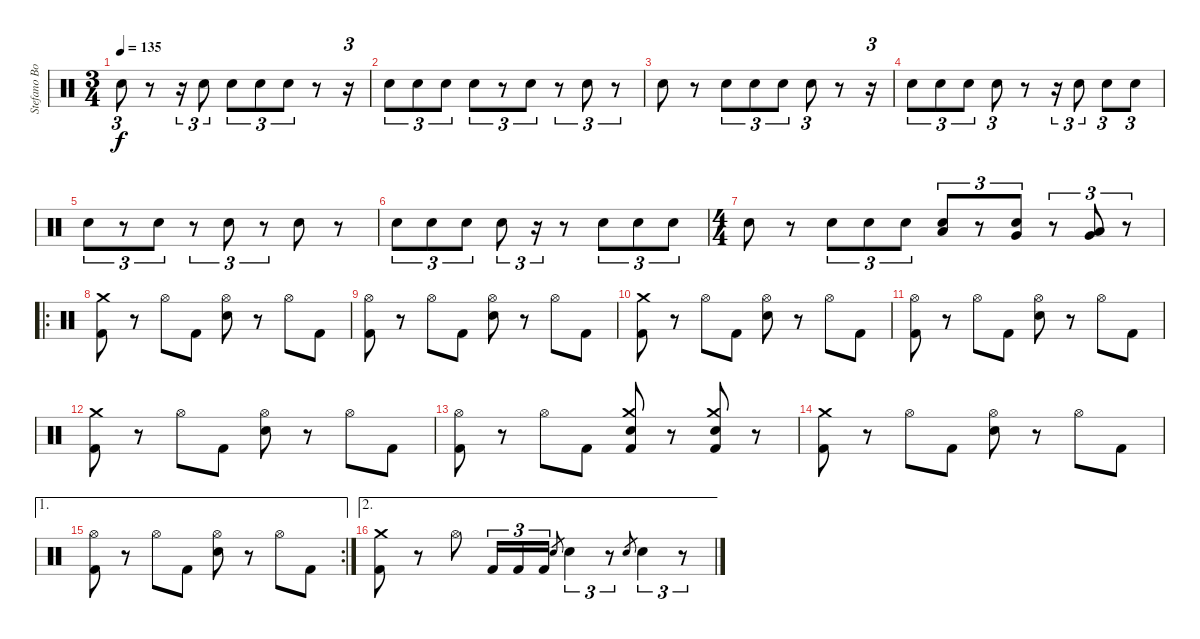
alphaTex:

\track ("Stefano Bonini" "Stefano Bo") {instrument percussion}
\staff {score}
\articulation defaults
\ts (3 4)
\tempo 135
\clef neutral
\ks c "Electric Snare (hit)".8{tu (3 2) dy f}
r.8 r.16{tu (3 2)} "Electric Snare (hit)".8{tu (3 2)} "Electric Snare (hit)".8{tu (3 2)} "Electric Snare (hit)".8{tu (3 2)} "Electric Snare (hit)".8{tu (3 2)} r.8 r.16{tu (3 2)} |
"Electric Snare (hit)".8{tu (3 2)} "Electric Snare (hit)".8{tu (3 2)} "Electric Snare (hit)".8{tu (3 2)} "Electric Snare (hit)".8{tu (3 2)} r.8{tu (3 2)} "Electric Snare (hit)".8{tu (3 2)} r.8{tu (3 2)} "Electric Snare (hit)".8{tu (3 2)} r.8{tu (3 2)} |
"Electric Snare (hit)".8 r.8 "Electric Snare (hit)".8{tu (3 2)} "Electric Snare (hit)".8{tu (3 2)} "Electric Snare (hit)".8{tu (3 2)} "Electric Snare (hit)".8{tu (3 2)} r.8 r.16{tu (3 2)} |
"Electric Snare (hit)".8{tu (3 2)} "Electric Snare (hit)".8{tu (3 2)} "Electric Snare (hit)".8{tu (3 2)} "Electric Snare (hit)".8{tu (3 2)} r.8 r.16{tu (3 2)} "Electric Snare (hit)".8{tu (3 2)} "Electric Snare (hit)".8{tu (3 2)} "Electric Snare (hit)".8{tu (3 2)} |
"Electric Snare (hit)".8{tu (3 2)} r.8{tu (3 2)} "Electric Snare (hit)".8{tu (3 2)} r.8{tu (3 2)} "Electric Snare (hit)".8{tu (3 2)} r.8{tu (3 2)} "Electric Snare (hit)".8 r.8 |
"Electric Snare (hit)".8{tu (3 2)} "Electric Snare (hit)".8{tu (3 2)} "Electric Snare (hit)".8{tu (3 2)} "Electric Snare (hit)".8{tu (3 2)} r.16{tu (3 2)} r.8 "Electric Snare (hit)".8{tu (3 2)} "Electric Snare (hit)".8{tu (3 2)} "Electric Snare (hit)".8{tu (3 2)} |
\ts (4 4)
"Electric Snare (hit)".8 r.8 "Electric Snare (hit)".8{tu (3 2)} "Electric Snare (hit)".8{tu (3 2)} "Electric Snare (hit)".8{tu (3 2)} ("Electric Snare (hit)" "Low Tom (hit)").8{tu (3 2)} r.8{tu (3 2)} ("Electric Snare (hit)" "Very Low Tom (hit)").8{tu (3 2)} r.8{tu (3 2)} ("Very Low Tom (hit)" "Low Floor Tom (hit)").8{tu (3 2)} r.8{tu (3 2)} |
\ro
("Crash medium (hit)" "Kick (hit) 2").8 r.8 "Hi-Hat (open)".8 "Kick (hit) 2".8 ("Hi-Hat (open)" "Electric Snare (hit)").8 r.8 "Hi-Hat (open)".8 "Kick (hit) 2".8 |
("Hi-Hat (open)" "Kick (hit) 2").8 r.8 "Hi-Hat (open)".8 "Kick (hit) 2".8 ("Hi-Hat (open)" "Electric Snare (hit)").8 r.8 "Hi-Hat (open)".8 "Kick (hit) 2".8 |
("Crash medium (hit)" "Kick (hit) 2").8 r.8 "Hi-Hat (open)".8 "Kick (hit) 2".8 ("Hi-Hat (open)" "Electric Snare (hit)").8 r.8 "Hi-Hat (open)".8 "Kick (hit) 2".8 |
("Hi-Hat (open)" "Kick (hit) 2").8 r.8 "Hi-Hat (open)".8 "Kick (hit) 2".8 ("Hi-Hat (open)" "Electric Snare (hit)").8 r.8 "Hi-Hat (open)".8 "Kick (hit) 2".8 |
("Crash medium (hit)" "Kick (hit) 2").8 r.8 "Hi-Hat (open)".8 "Kick (hit) 2".8 ("Hi-Hat (open)" "Electric Snare (hit)").8 r.8 "Hi-Hat (open)".8 "Kick (hit) 2".8 |
("Hi-Hat (open)" "Kick (hit) 2").8 r.8 "Hi-Hat (open)".8 "Kick (hit) 2".8 ("Crash medium (hit)" "Electric Snare (hit)" "Kick (hit) 2").8 r.8 ("Crash medium (hit)" "Electric Snare (hit)" "Kick (hit) 2").8 r.8 |
("Crash medium (hit)" "Kick (hit) 2").8 r.8 "Hi-Hat (open)".8 "Kick (hit) 2".8 ("Hi-Hat (open)" "Electric Snare (hit)").8 r.8 "Hi-Hat (open)".8 "Kick (hit) 2".8 |
\ae 1
\rc 2
("Hi-Hat (open)" "Kick (hit) 2").8 r.8 "Hi-Hat (open)".8 "Kick (hit) 2".8 ("Hi-Hat (open)" "Electric Snare (hit)").8 r.8 "Hi-Hat (open)".8 "Kick (hit) 2".8 |
\ae 2
("Crash medium (hit)" "Kick (hit) 2").8 r.8 "Hi-Hat (open)".8 "Kick (hit) 2".16{tu (3 2)} "Kick (hit) 2".16{tu (3 2)} "Kick (hit) 2".16{tu (3 2)} "Electric Snare (hit)".8{gr} "Electric Snare (hit)".4{tu (3 2)} r.8{tu (3 2)} "Electric Snare (hit)".8{gr} "Electric Snare (hit)".4{tu (3 2)} r.8{tu (3 2)}
